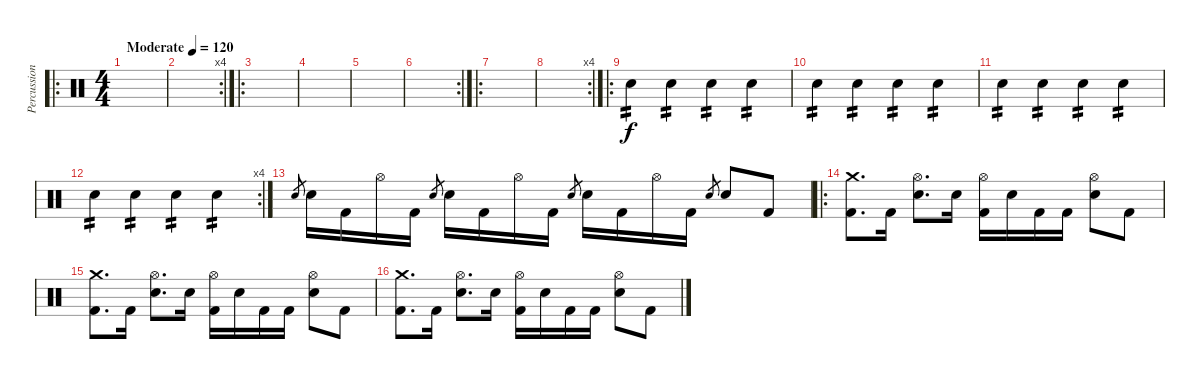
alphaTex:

\track ("Percussion" "Percussion") {instrument percussion}
\staff {score}
\articulation defaults
\ro
\ts (4 4)
\tempo (120 "Moderate")
\clef neutral
\ks c
|
\rc 4
|
\ro
|
|
|
\rc 2
|
\ro
|
\rc 4
|
\ro "Snare (hit) 2".4{tp 2} "Snare (hit) 2".4{tp 2} "Snare (hit) 2".4{tp 2} "Snare (hit) 2".4{tp 2}
|
"Snare (hit) 2".4{tp 2} "Snare (hit) 2".4{tp 2} "Snare (hit) 2".4{tp 2} "Snare (hit) 2".4{tp 2} |
"Snare (hit) 2".4{tp 2} "Snare (hit) 2".4{tp 2} "Snare (hit) 2".4{tp 2} "Snare (hit) 2".4{tp 2} |
\rc 4 "Snare (hit) 2".4{tp 2} "Snare (hit) 2".4{tp 2} "Snare (hit) 2".4{tp 2} "Snare (hit) 2".4{tp 2}
|
"Electric Snare (hit)".8{gr} "Electric Snare (hit)".16 "Kick (hit) 2".16 "Hi-Hat (open)".16 "Kick (hit) 2".16 "Electric Snare (hit)".8{gr} "Electric Snare (hit)".16 "Kick (hit) 2".16 "Hi-Hat (open)".16 "Kick (hit) 2".16 "Electric Snare (hit)".8{gr} "Electric Snare (hit)".16 "Kick (hit) 2".16 "Hi-Hat (open)".16 "Kick (hit) 2".16 "Electric Snare (hit)".8{gr} "Electric Snare (hit)".8 "Kick (hit) 2".8 |
\ro
("Crash medium (hit)" "Kick (hit) 2").8{d} "Kick (hit) 2".16 ("Hi-Hat (open)" "Electric Snare (hit)").8{d} "Electric Snare (hit)".16 ("Hi-Hat (open)" "Kick (hit) 2").16 "Electric Snare (hit)".16 "Kick (hit) 2".16 "Kick (hit) 2".16 ("Hi-Hat (open)" "Electric Snare (hit)").8 "Kick (hit) 2".8 |
("Crash medium (hit)" "Kick (hit) 2").8{d} "Kick (hit) 2".16 ("Hi-Hat (open)" "Electric Snare (hit)").8{d} "Electric Snare (hit)".16 ("Hi-Hat (open)" "Kick (hit) 2").16 "Electric Snare (hit)".16 "Kick (hit) 2".16 "Kick (hit) 2".16 ("Hi-Hat (open)" "Electric Snare (hit)").8 "Kick (hit) 2".8 |
("Crash medium (hit)" "Kick (hit) 2").8{d} "Kick (hit) 2".16 ("Hi-Hat (open)" "Electric Snare (hit)").8{d} "Electric Snare (hit)".16 ("Hi-Hat (open)" "Kick (hit) 2").16 "Electric Snare (hit)".16 "Kick (hit) 2".16 "Kick (hit) 2".16 ("Hi-Hat (open)" "Electric Snare (hit)").8 "Kick (hit) 2".8
